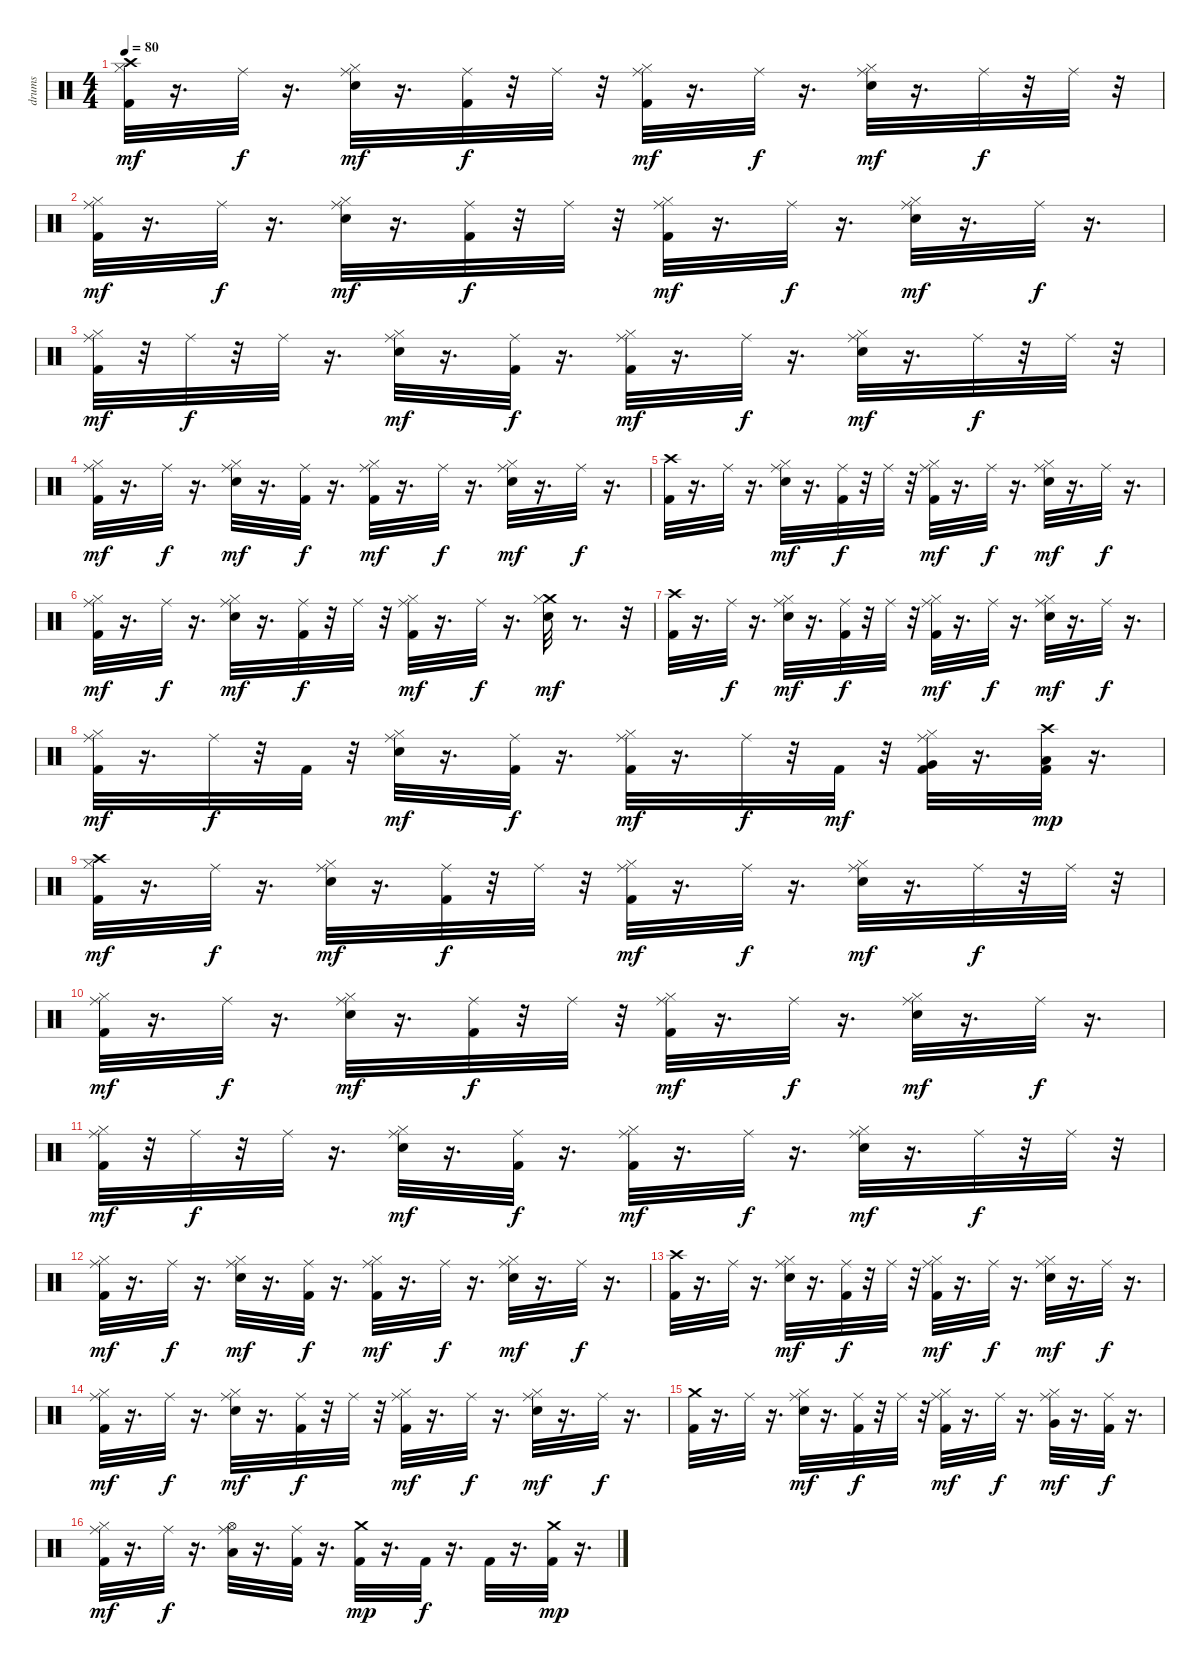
\track ("drums" "drums") {instrument percussion}
\staff {score}
\articulation defaults
\ts (4 4)
\tempo 80
\clef neutral
\ks c
("Hi-Hat (closed)" "Kick (hit) 2" "Crash high (hit)").32{dy mf} r.16{d} "Ride (middle)".32{dy f} r.16{d} ("Hi-Hat (closed)" "Ride (middle)" "Electric Snare (hit)").32{dy mf} r.16{d} ("Ride (middle)" "Kick (hit) 2").32{dy f} r.32 "Ride (middle)".32 r.32 ("Hi-Hat (closed)" "Ride (middle)" "Kick (hit) 2").32{dy mf} r.16{d} "Ride (middle)".32{dy f} r.16{d} ("Hi-Hat (closed)" "Ride (middle)" "Electric Snare (hit)").32{dy mf} r.16{d} "Ride (middle)".32{dy f} r.32 "Ride (middle)".32 r.32 |
("Hi-Hat (closed)" "Ride (middle)" "Kick (hit) 2").32{dy mf} r.16{d} "Ride (middle)".32{dy f} r.16{d} ("Hi-Hat (closed)" "Ride (middle)" "Electric Snare (hit)").32{dy mf} r.16{d} ("Ride (middle)" "Kick (hit) 2").32{dy f} r.32 "Ride (middle)".32 r.32 ("Hi-Hat (closed)" "Ride (middle)" "Kick (hit) 2").32{dy mf} r.16{d} "Ride (middle)".32{dy f} r.16{d} ("Hi-Hat (closed)" "Ride (middle)" "Electric Snare (hit)").32{dy mf} r.16{d} "Ride (middle)".32{dy f} r.16{d} |
("Ride (middle)" "Hi-Hat (closed)" "Kick (hit) 2").32{dy mf} r.32 "Ride (middle)".32{dy f} r.32 "Ride (middle)".32 r.16{d} ("Ride (middle)" "Hi-Hat (closed)" "Electric Snare (hit)").32{dy mf} r.16{d} ("Ride (middle)" "Kick (hit) 2").32{dy f} r.16{d} ("Ride (middle)" "Hi-Hat (closed)" "Kick (hit) 2").32{dy mf} r.16{d} "Ride (middle)".32{dy f} r.16{d} ("Ride (middle)" "Hi-Hat (closed)" "Electric Snare (hit)").32{dy mf} r.16{d} "Ride (middle)".32{dy f} r.32 "Ride (middle)".32 r.32 |
("Ride (middle)" "Hi-Hat (closed)" "Kick (hit) 2").32{dy mf} r.16{d} "Ride (middle)".32{dy f} r.16{d} ("Ride (middle)" "Hi-Hat (closed)" "Electric Snare (hit)").32{dy mf} r.16{d} ("Ride (middle)" "Kick (hit) 2").32{dy f} r.16{d} ("Ride (middle)" "Hi-Hat (closed)" "Kick (hit) 2").32{dy mf} r.16{d} "Ride (middle)".32{dy f} r.16{d} ("Ride (middle)" "Hi-Hat (closed)" "Electric Snare (hit)").32{dy mf} r.16{d} "Ride (middle)".32{dy f} r.16{d} |
("Crash high (hit)" "Kick (hit) 2").32 r.16{d} "Ride (middle)".32 r.16{d} ("Ride (middle)" "Hi-Hat (closed)" "Electric Snare (hit)").32{dy mf} r.16{d} ("Ride (middle)" "Kick (hit) 2").32{dy f} r.32 "Ride (middle)".32 r.32 ("Ride (middle)" "Hi-Hat (closed)" "Kick (hit) 2").32{dy mf} r.16{d} "Ride (middle)".32{dy f} r.16{d} ("Ride (middle)" "Hi-Hat (closed)" "Electric Snare (hit)").32{dy mf} r.16{d} "Ride (middle)".32{dy f} r.16{d} |
("Ride (middle)" "Hi-Hat (closed)" "Kick (hit) 2").32{dy mf} r.16{d} "Ride (middle)".32{dy f} r.16{d} ("Ride (middle)" "Hi-Hat (closed)" "Electric Snare (hit)").32{dy mf} r.16{d} ("Ride (middle)" "Kick (hit) 2").32{dy f} r.32 "Ride (middle)".32 r.32 ("Ride (middle)" "Hi-Hat (closed)" "Kick (hit) 2").32{dy mf} r.16{d} "Ride (middle)".32{dy f} r.16{d} ("Crash medium (hit)" "Hi-Hat (closed)" "Electric Snare (hit)").32{dy mf} r.8{d} r.32 |
("Crash high (hit)" "Kick (hit) 2").32 r.16{d} "Ride (middle)".32{dy f} r.16{d} ("Ride (middle)" "Hi-Hat (closed)" "Electric Snare (hit)").32{dy mf} r.16{d} ("Ride (middle)" "Kick (hit) 2").32{dy f} r.32 "Ride (middle)".32 r.32 ("Hi-Hat (closed)" "Ride (middle)" "Kick (hit) 2").32{dy mf} r.16{d} "Ride (middle)".32{dy f} r.16{d} ("Ride (middle)" "Electric Snare (hit)" "Hi-Hat (closed)").32{dy mf} r.16{d} "Ride (middle)".32{dy f} r.16{d} |
("Ride (middle)" "Hi-Hat (closed)" "Kick (hit) 2").32{dy mf} r.16{d} "Ride (middle)".32{dy f} r.32 "Kick (hit) 2".32 r.32 ("Ride (middle)" "Hi-Hat (closed)" "Electric Snare (hit)").32{dy mf} r.16{d} ("Ride (middle)" "Kick (hit) 2").32{dy f} r.16{d} ("Ride (middle)" "Hi-Hat (closed)" "Kick (hit) 2").32{dy mf} r.16{d} "Ride (middle)".32{dy f} r.32 "Kick (hit) 2".32{dy mf} r.32 ("Ride (middle)" "Very Low Tom (hit)" "Kick (hit) 2" "Hi-Hat (closed)").32 r.16{d} ("Crash high (hit)" "Low Floor Tom (hit)" "Kick (hit) 2").32{dy mp} r.16{d} |
("Hi-Hat (closed)" "Kick (hit) 2" "Crash high (hit)").32{dy mf} r.16{d} "Ride (middle)".32{dy f} r.16{d} ("Hi-Hat (closed)" "Ride (middle)" "Electric Snare (hit)").32{dy mf} r.16{d} ("Ride (middle)" "Kick (hit) 2").32{dy f} r.32 "Ride (middle)".32 r.32 ("Hi-Hat (closed)" "Ride (middle)" "Kick (hit) 2").32{dy mf} r.16{d} "Ride (middle)".32{dy f} r.16{d} ("Hi-Hat (closed)" "Ride (middle)" "Electric Snare (hit)").32{dy mf} r.16{d} "Ride (middle)".32{dy f} r.32 "Ride (middle)".32 r.32 |
("Hi-Hat (closed)" "Ride (middle)" "Kick (hit) 2").32{dy mf} r.16{d} "Ride (middle)".32{dy f} r.16{d} ("Hi-Hat (closed)" "Ride (middle)" "Electric Snare (hit)").32{dy mf} r.16{d} ("Ride (middle)" "Kick (hit) 2").32{dy f} r.32 "Ride (middle)".32 r.32 ("Hi-Hat (closed)" "Ride (middle)" "Kick (hit) 2").32{dy mf} r.16{d} "Ride (middle)".32{dy f} r.16{d} ("Hi-Hat (closed)" "Ride (middle)" "Electric Snare (hit)").32{dy mf} r.16{d} "Ride (middle)".32{dy f} r.16{d} |
("Ride (middle)" "Hi-Hat (closed)" "Kick (hit) 2").32{dy mf} r.32 "Ride (middle)".32{dy f} r.32 "Ride (middle)".32 r.16{d} ("Ride (middle)" "Hi-Hat (closed)" "Electric Snare (hit)").32{dy mf} r.16{d} ("Ride (middle)" "Kick (hit) 2").32{dy f} r.16{d} ("Ride (middle)" "Hi-Hat (closed)" "Kick (hit) 2").32{dy mf} r.16{d} "Ride (middle)".32{dy f} r.16{d} ("Ride (middle)" "Hi-Hat (closed)" "Electric Snare (hit)").32{dy mf} r.16{d} "Ride (middle)".32{dy f} r.32 "Ride (middle)".32 r.32 |
("Ride (middle)" "Hi-Hat (closed)" "Kick (hit) 2").32{dy mf} r.16{d} "Ride (middle)".32{dy f} r.16{d} ("Ride (middle)" "Hi-Hat (closed)" "Electric Snare (hit)").32{dy mf} r.16{d} ("Ride (middle)" "Kick (hit) 2").32{dy f} r.16{d} ("Ride (middle)" "Hi-Hat (closed)" "Kick (hit) 2").32{dy mf} r.16{d} "Ride (middle)".32{dy f} r.16{d} ("Ride (middle)" "Hi-Hat (closed)" "Electric Snare (hit)").32{dy mf} r.16{d} "Ride (middle)".32{dy f} r.16{d} |
("Crash high (hit)" "Kick (hit) 2").32 r.16{d} "Ride (middle)".32 r.16{d} ("Ride (middle)" "Hi-Hat (closed)" "Electric Snare (hit)").32{dy mf} r.16{d} ("Ride (middle)" "Kick (hit) 2").32{dy f} r.32 "Ride (middle)".32 r.32 ("Ride (middle)" "Hi-Hat (closed)" "Kick (hit) 2").32{dy mf} r.16{d} "Ride (middle)".32{dy f} r.16{d} ("Ride (middle)" "Hi-Hat (closed)" "Electric Snare (hit)").32{dy mf} r.16{d} "Ride (middle)".32{dy f} r.16{d} |
("Ride (middle)" "Hi-Hat (closed)" "Kick (hit) 2").32{dy mf} r.16{d} "Ride (middle)".32{dy f} r.16{d} ("Ride (middle)" "Hi-Hat (closed)" "Electric Snare (hit)").32{dy mf} r.16{d} ("Ride (middle)" "Kick (hit) 2").32{dy f} r.32 "Ride (middle)".32 r.32 ("Ride (middle)" "Hi-Hat (closed)" "Kick (hit) 2").32{dy mf} r.16{d} "Ride (middle)".32{dy f} r.16{d} ("Ride (middle)" "Hi-Hat (closed)" "Electric Snare (hit)").32{dy mf} r.16{d} "Ride (middle)".32{dy f} r.16{d} |
("Crash medium (hit)" "Kick (hit) 2").32 r.16{d} "Ride (middle)".32 r.16{d} ("Ride (middle)" "Hi-Hat (closed)" "Electric Snare (hit)").32{dy mf} r.16{d} ("Ride (middle)" "Kick (hit) 2").32{dy f} r.32 "Ride (middle)".32 r.32 ("Hi-Hat (closed)" "Ride (middle)" "Kick (hit) 2").32{dy mf} r.16{d} "Ride (middle)".32{dy f} r.16{d} ("Ride (middle)" "Very Low Tom (hit)" "Hi-Hat (closed)").32{dy mf} r.16{d} ("Kick (hit) 2" "Ride (middle)").32{dy f} r.16{d} |
("Hi-Hat (closed)" "Ride (middle)" "Kick (hit) 2").32{dy mf} r.16{d} "Ride (middle)".32{dy f} r.16{d} ("Ride (middle)" "Low Floor Tom (hit)" "Hi-Hat (open)").32 r.16{d} ("Ride (middle)" "Kick (hit) 2").32 r.16{d} ("Crash medium (hit)" "Kick (hit) 2").32{dy mp} r.16{d} "Kick (hit) 2".32{dy f} r.16{d} "Kick (hit) 2".32 r.16{d} ("Crash medium (hit)" "Kick (hit) 2").32{dy mp} r.16{d}
